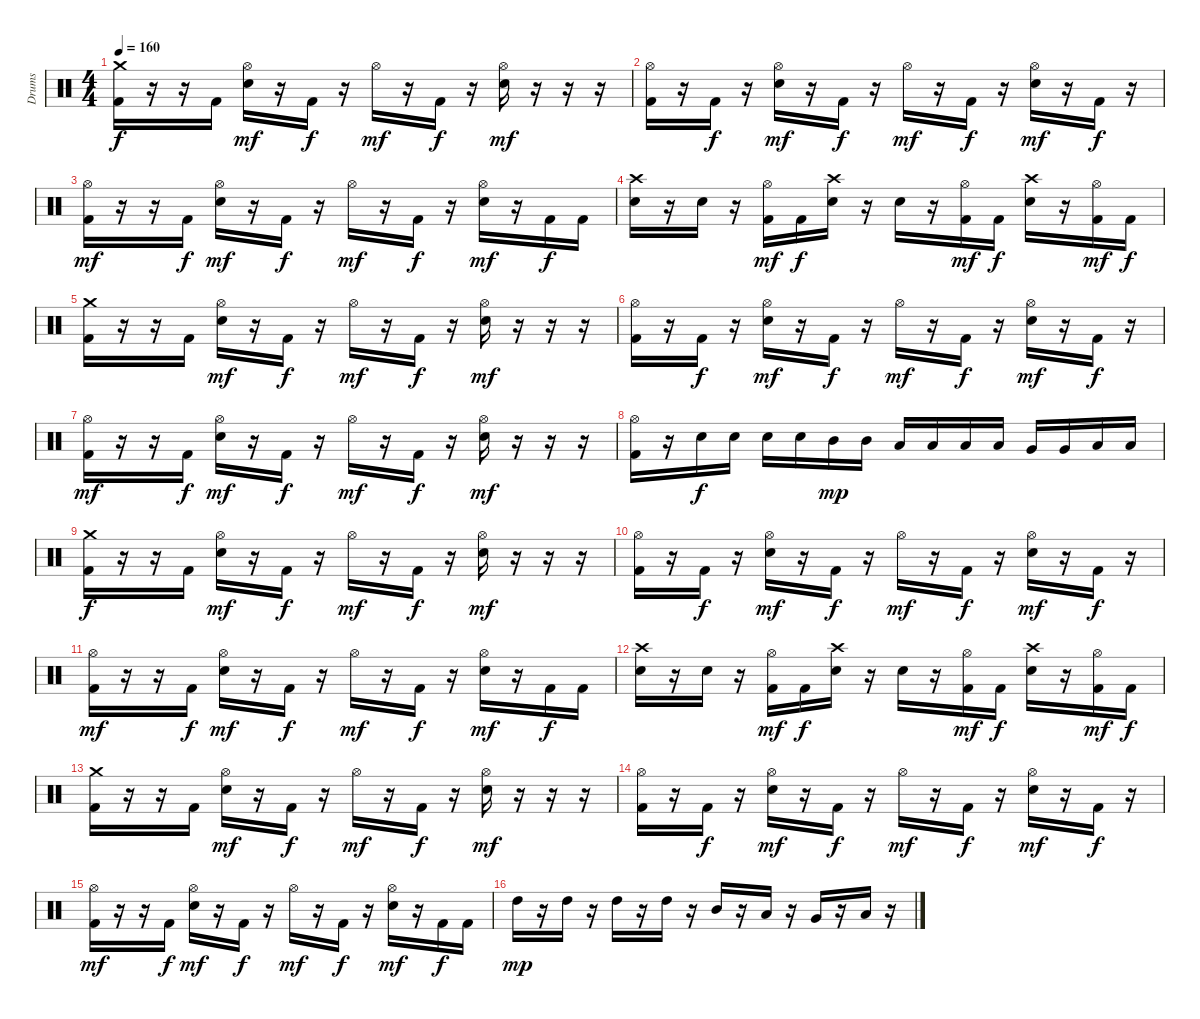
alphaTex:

\track ("Drums" "Drums") {instrument percussion}
\staff {score}
\articulation defaults
\ts (4 4)
\tempo 160
\clef neutral
\ks c
("Crash medium (hit)" "Kick (hit) 2").16{dy f} r.16 r.16 "Kick (hit) 2".16 ("Hi-Hat (open)" "Electric Snare (hit)").16{dy mf} r.16 "Kick (hit) 2".16{dy f} r.16 "Hi-Hat (open)".16{dy mf} r.16 "Kick (hit) 2".16{dy f} r.16 ("Hi-Hat (open)" "Electric Snare (hit)").16{dy mf} r.16 r.16 r.16 |
("Hi-Hat (open)" "Kick (hit) 2").16 r.16 "Kick (hit) 2".16{dy f} r.16 ("Hi-Hat (open)" "Electric Snare (hit)").16{dy mf} r.16 "Kick (hit) 2".16{dy f} r.16 "Hi-Hat (open)".16{dy mf} r.16 "Kick (hit) 2".16{dy f} r.16 ("Hi-Hat (open)" "Electric Snare (hit)").16{dy mf} r.16 "Kick (hit) 2".16{dy f} r.16 |
("Hi-Hat (open)" "Kick (hit) 2").16{dy mf} r.16 r.16 "Kick (hit) 2".16{dy f} ("Hi-Hat (open)" "Electric Snare (hit)").16{dy mf} r.16 "Kick (hit) 2".16{dy f} r.16 "Hi-Hat (open)".16{dy mf} r.16 "Kick (hit) 2".16{dy f} r.16 ("Hi-Hat (open)" "Electric Snare (hit)").16{dy mf} r.16 "Kick (hit) 2".16{dy f} "Kick (hit) 2".16 |
("Crash high (hit)" "Snare (hit) 2").16 r.16 "Snare (hit) 2".16 r.16 ("Hi-Hat (open)" "Kick (hit) 2").16{dy mf} "Kick (hit) 2".16{dy f} ("Crash high (hit)" "Snare (hit) 2").16 r.16 "Snare (hit) 2".16 r.16 ("Hi-Hat (open)" "Kick (hit) 2").16{dy mf} "Kick (hit) 2".16{dy f} ("Crash high (hit)" "Snare (hit) 2").16 r.16 ("Hi-Hat (open)" "Kick (hit) 2").16{dy mf} "Kick (hit) 2".16{dy f} |
("Crash medium (hit)" "Kick (hit) 2").16 r.16 r.16 "Kick (hit) 2".16 ("Hi-Hat (open)" "Electric Snare (hit)").16{dy mf} r.16 "Kick (hit) 2".16{dy f} r.16 "Hi-Hat (open)".16{dy mf} r.16 "Kick (hit) 2".16{dy f} r.16 ("Hi-Hat (open)" "Electric Snare (hit)").16{dy mf} r.16 r.16 r.16 |
("Hi-Hat (open)" "Kick (hit) 2").16 r.16 "Kick (hit) 2".16{dy f} r.16 ("Hi-Hat (open)" "Electric Snare (hit)").16{dy mf} r.16 "Kick (hit) 2".16{dy f} r.16 "Hi-Hat (open)".16{dy mf} r.16 "Kick (hit) 2".16{dy f} r.16 ("Hi-Hat (open)" "Electric Snare (hit)").16{dy mf} r.16 "Kick (hit) 2".16{dy f} r.16 |
("Hi-Hat (open)" "Kick (hit) 2").16{dy mf} r.16 r.16 "Kick (hit) 2".16{dy f} ("Hi-Hat (open)" "Electric Snare (hit)").16{dy mf} r.16 "Kick (hit) 2".16{dy f} r.16 "Hi-Hat (open)".16{dy mf} r.16 "Kick (hit) 2".16{dy f} r.16 ("Hi-Hat (open)" "Electric Snare (hit)").16{dy mf} r.16 r.16 r.16 |
("Hi-Hat (open)" "Kick (hit) 2").16 r.16 "Snare (hit) 2".16{dy f} "Snare (hit) 2".16 "Snare (hit) 2".16 "Snare (hit) 2".16 "Mid Tom (hit)".16{dy mp} "Mid Tom (hit)".16 "Low Tom (hit)".16 "Low Tom (hit)".16 "Low Tom (hit)".16 "Low Tom (hit)".16 "Very Low Tom (hit)".16 "Very Low Tom (hit)".16 "Low Floor Tom (hit)".16 "Low Floor Tom (hit)".16 |
("Crash medium (hit)" "Kick (hit) 2").16{dy f} r.16 r.16 "Kick (hit) 2".16 ("Hi-Hat (open)" "Electric Snare (hit)").16{dy mf} r.16 "Kick (hit) 2".16{dy f} r.16 "Hi-Hat (open)".16{dy mf} r.16 "Kick (hit) 2".16{dy f} r.16 ("Hi-Hat (open)" "Electric Snare (hit)").16{dy mf} r.16 r.16 r.16 |
("Hi-Hat (open)" "Kick (hit) 2").16 r.16 "Kick (hit) 2".16{dy f} r.16 ("Hi-Hat (open)" "Electric Snare (hit)").16{dy mf} r.16 "Kick (hit) 2".16{dy f} r.16 "Hi-Hat (open)".16{dy mf} r.16 "Kick (hit) 2".16{dy f} r.16 ("Hi-Hat (open)" "Electric Snare (hit)").16{dy mf} r.16 "Kick (hit) 2".16{dy f} r.16 |
("Hi-Hat (open)" "Kick (hit) 2").16{dy mf} r.16 r.16 "Kick (hit) 2".16{dy f} ("Hi-Hat (open)" "Electric Snare (hit)").16{dy mf} r.16 "Kick (hit) 2".16{dy f} r.16 "Hi-Hat (open)".16{dy mf} r.16 "Kick (hit) 2".16{dy f} r.16 ("Hi-Hat (open)" "Electric Snare (hit)").16{dy mf} r.16 "Kick (hit) 2".16{dy f} "Kick (hit) 2".16 |
("Crash high (hit)" "Snare (hit) 2").16 r.16 "Snare (hit) 2".16 r.16 ("Hi-Hat (open)" "Kick (hit) 2").16{dy mf} "Kick (hit) 2".16{dy f} ("Crash high (hit)" "Snare (hit) 2").16 r.16 "Snare (hit) 2".16 r.16 ("Hi-Hat (open)" "Kick (hit) 2").16{dy mf} "Kick (hit) 2".16{dy f} ("Crash high (hit)" "Snare (hit) 2").16 r.16 ("Hi-Hat (open)" "Kick (hit) 2").16{dy mf} "Kick (hit) 2".16{dy f} |
("Crash medium (hit)" "Kick (hit) 2").16 r.16 r.16 "Kick (hit) 2".16 ("Hi-Hat (open)" "Electric Snare (hit)").16{dy mf} r.16 "Kick (hit) 2".16{dy f} r.16 "Hi-Hat (open)".16{dy mf} r.16 "Kick (hit) 2".16{dy f} r.16 ("Hi-Hat (open)" "Electric Snare (hit)").16{dy mf} r.16 r.16 r.16 |
("Hi-Hat (open)" "Kick (hit) 2").16 r.16 "Kick (hit) 2".16{dy f} r.16 ("Hi-Hat (open)" "Electric Snare (hit)").16{dy mf} r.16 "Kick (hit) 2".16{dy f} r.16 "Hi-Hat (open)".16{dy mf} r.16 "Kick (hit) 2".16{dy f} r.16 ("Hi-Hat (open)" "Electric Snare (hit)").16{dy mf} r.16 "Kick (hit) 2".16{dy f} r.16 |
("Hi-Hat (open)" "Kick (hit) 2").16{dy mf} r.16 r.16 "Kick (hit) 2".16{dy f} ("Hi-Hat (open)" "Electric Snare (hit)").16{dy mf} r.16 "Kick (hit) 2".16{dy f} r.16 "Hi-Hat (open)".16{dy mf} r.16 "Kick (hit) 2".16{dy f} r.16 ("Hi-Hat (open)" "Electric Snare (hit)").16{dy mf} r.16 "Kick (hit) 2".16{dy f} "Kick (hit) 2".16 |
"High Tom (hit)".16{dy mp} r.16 "High Tom (hit)".16 r.16 "High Tom (hit)".16 r.16 "High Tom (hit)".16 r.16 "Mid Tom (hit)".16 r.16 "Low Tom (hit)".16 r.16 "Very Low Tom (hit)".16 r.16 "Low Floor Tom (hit)".16 r.16
